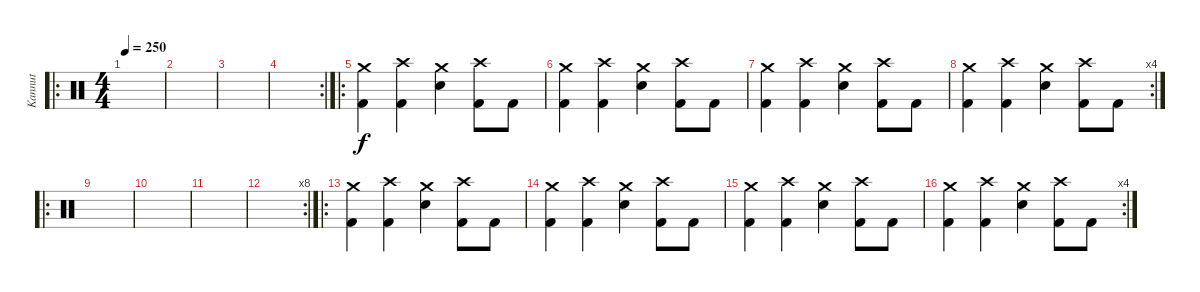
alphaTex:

\track ("Kannut" "Kannut") {instrument percussion}
\staff {score}
\articulation defaults
\ro
\ts (4 4)
\tempo 250
\clef neutral
\ks c
|
|
|
\rc 2
|
\ro
("Crash medium (hit)" "Kick (hit) 2").4 ("Crash high (hit)" "Kick (hit) 2").4 ("Crash medium (hit)" "Snare (hit) 2").4 ("Crash high (hit)" "Kick (hit) 2").8 "Kick (hit) 2".8 |
("Crash medium (hit)" "Kick (hit) 2").4 ("Crash high (hit)" "Kick (hit) 2").4 ("Crash medium (hit)" "Snare (hit) 2").4 ("Crash high (hit)" "Kick (hit) 2").8 "Kick (hit) 2".8 |
("Crash medium (hit)" "Kick (hit) 2").4 ("Crash high (hit)" "Kick (hit) 2").4 ("Crash medium (hit)" "Snare (hit) 2").4 ("Crash high (hit)" "Kick (hit) 2").8 "Kick (hit) 2".8 |
\rc 4
("Crash medium (hit)" "Kick (hit) 2").4 ("Crash high (hit)" "Kick (hit) 2").4 ("Crash medium (hit)" "Snare (hit) 2").4 ("Crash high (hit)" "Kick (hit) 2").8 "Kick (hit) 2".8 |
\ro
|
|
|
\rc 8
|
\ro
("Crash medium (hit)" "Kick (hit) 2").4 ("Crash high (hit)" "Kick (hit) 2").4 ("Crash medium (hit)" "Snare (hit) 2").4 ("Crash high (hit)" "Kick (hit) 2").8 "Kick (hit) 2".8 |
("Crash medium (hit)" "Kick (hit) 2").4 ("Crash high (hit)" "Kick (hit) 2").4 ("Crash medium (hit)" "Snare (hit) 2").4 ("Crash high (hit)" "Kick (hit) 2").8 "Kick (hit) 2".8 |
("Crash medium (hit)" "Kick (hit) 2").4 ("Crash high (hit)" "Kick (hit) 2").4 ("Crash medium (hit)" "Snare (hit) 2").4 ("Crash high (hit)" "Kick (hit) 2").8 "Kick (hit) 2".8 |
\rc 4
("Crash medium (hit)" "Kick (hit) 2").4 ("Crash high (hit)" "Kick (hit) 2").4 ("Crash medium (hit)" "Snare (hit) 2").4 ("Crash high (hit)" "Kick (hit) 2").8 "Kick (hit) 2".8
